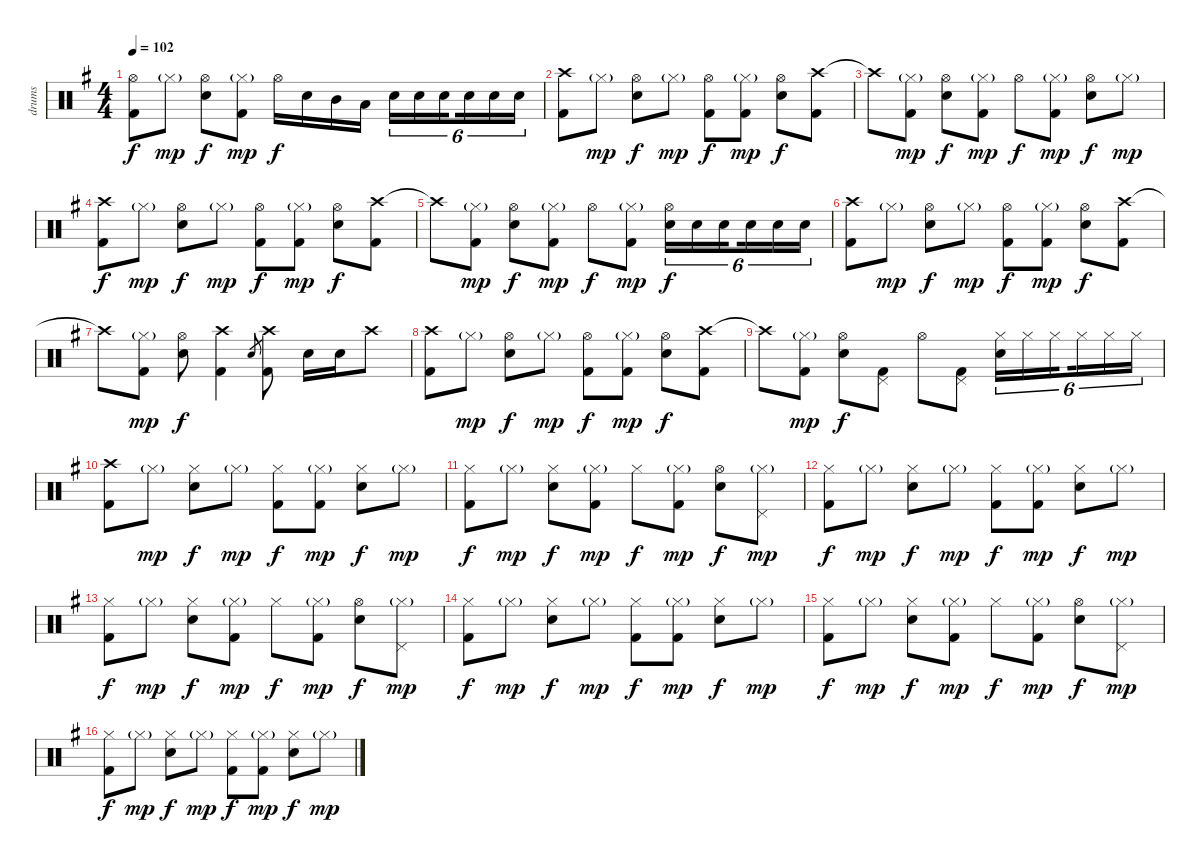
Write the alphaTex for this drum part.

\track ("drums" "drums") {instrument percussion}
\staff {score}
\articulation defaults
\ts (4 4)
\tempo 102
\clef neutral
\ks eminor
("Hi-Hat (open)" "Kick (hit) 2").8{dy f} "Hi-Hat (closed)"{g}.8{dy mp} ("Hi-Hat (open)" "Snare (hit) 2").8{dy f} ("Hi-Hat (closed)"{g} "Kick (hit) 2").8{dy mp} "Hi-Hat (open)".16{dy f} "Snare (hit) 2".16 "Mid Tom (hit)".16 "Low Tom (hit)".16 "Snare (hit) 2".16{tu (6 4)} "Snare (hit) 2".16{tu (6 4)} "Snare (hit) 2".16{tu (6 4) beam splitsecondary} "Snare (hit) 2".16{tu (6 4)} "Snare (hit) 2".16{tu (6 4)} "Snare (hit) 2".16{tu (6 4)} |
("Crash high (hit)" "Kick (hit) 2").8 "Hi-Hat (closed)"{g}.8{dy mp} ("Hi-Hat (open)" "Snare (hit) 2").8{dy f} "Hi-Hat (closed)"{g}.8{dy mp} ("Hi-Hat (open)" "Kick (hit) 2").8{dy f} ("Hi-Hat (closed)"{g} "Kick (hit) 2").8{dy mp} ("Hi-Hat (open)" "Snare (hit) 2").8{dy f} ("Crash high (hit)" "Kick (hit) 2").8 |
"Crash high (hit)"{t}.8 ("Hi-Hat (closed)"{g} "Kick (hit) 2").8{dy mp} ("Hi-Hat (open)" "Snare (hit) 2").8{dy f} ("Hi-Hat (closed)"{g} "Kick (hit) 2").8{dy mp} "Hi-Hat (open)".8{dy f} ("Hi-Hat (closed)"{g} "Kick (hit) 2").8{dy mp} ("Hi-Hat (open)" "Snare (hit) 2").8{dy f} "Hi-Hat (closed)"{g}.8{dy mp} |
("Crash high (hit)" "Kick (hit) 2").8{dy f} "Hi-Hat (closed)"{g}.8{dy mp} ("Hi-Hat (open)" "Snare (hit) 2").8{dy f} "Hi-Hat (closed)"{g}.8{dy mp} ("Hi-Hat (open)" "Kick (hit) 2").8{dy f} ("Hi-Hat (closed)"{g} "Kick (hit) 2").8{dy mp} ("Hi-Hat (open)" "Snare (hit) 2").8{dy f} ("Crash high (hit)" "Kick (hit) 2").8 |
"Crash high (hit)"{t}.8 ("Hi-Hat (closed)"{g} "Kick (hit) 2").8{dy mp} ("Hi-Hat (open)" "Snare (hit) 2").8{dy f} ("Hi-Hat (closed)"{g} "Kick (hit) 2").8{dy mp} "Hi-Hat (open)".8{dy f} ("Hi-Hat (closed)"{g} "Kick (hit) 2").8{dy mp} ("Hi-Hat (open)" "Snare (hit) 2").16{tu (6 4) dy f} "Snare (hit) 2".16{tu (6 4)} "Snare (hit) 2".16{tu (6 4) beam splitsecondary} "Snare (hit) 2".16{tu (6 4)} "Snare (hit) 2".16{tu (6 4)} "Snare (hit) 2".16{tu (6 4)} |
("Crash high (hit)" "Kick (hit) 2").8 "Hi-Hat (closed)"{g}.8{dy mp} ("Hi-Hat (open)" "Snare (hit) 2").8{dy f} "Hi-Hat (closed)"{g}.8{dy mp} ("Hi-Hat (open)" "Kick (hit) 2").8{dy f} ("Hi-Hat (closed)"{g} "Kick (hit) 2").8{dy mp} ("Hi-Hat (open)" "Snare (hit) 2").8{dy f} ("Crash high (hit)" "Kick (hit) 2").8 |
"Crash high (hit)"{t}.8 ("Hi-Hat (closed)"{g} "Kick (hit) 2").8{dy mp} ("Hi-Hat (open)" "Snare (hit) 2").8{dy f} ("Crash high (hit)" "Kick (hit) 2").4 "Snare (hit) 2".8{gr} ("Crash high (hit)" "Kick (hit) 2").8 "Snare (hit) 2".16 "Snare (hit) 2".16 "Crash high (hit)".8 |
("Crash high (hit)" "Kick (hit) 2").8 "Hi-Hat (closed)"{g}.8{dy mp} ("Hi-Hat (open)" "Snare (hit) 2").8{dy f} "Hi-Hat (closed)"{g}.8{dy mp} ("Hi-Hat (open)" "Kick (hit) 2").8{dy f} ("Hi-Hat (closed)"{g} "Kick (hit) 2").8{dy mp} ("Hi-Hat (open)" "Snare (hit) 2").8{dy f} ("Crash high (hit)" "Kick (hit) 2").8 |
"Crash high (hit)"{t}.8 ("Hi-Hat (closed)"{g} "Kick (hit) 2").8{dy mp} ("Hi-Hat (open)" "Snare (hit) 2").8{dy f} ("Pedal Hi-Hat (hit)" "Kick (hit) 2").8 "Hi-Hat (open)".8 ("Pedal Hi-Hat (hit)" "Kick (hit) 2").8 ("Hi-Hat (closed)" "Snare (hit) 2").16{tu (6 4)} "Hi-Hat (closed)".16{tu (6 4)} "Hi-Hat (closed)".16{tu (6 4) beam splitsecondary} "Hi-Hat (closed)".16{tu (6 4)} "Hi-Hat (closed)".16{tu (6 4)} "Hi-Hat (closed)".16{tu (6 4)} |
("Crash high (hit)" "Kick (hit) 2").8 "Hi-Hat (closed)"{g}.8{dy mp} ("Hi-Hat (closed)" "Snare (hit) 2").8{dy f} "Hi-Hat (closed)"{g}.8{dy mp} ("Hi-Hat (closed)" "Kick (hit) 2").8{dy f} ("Hi-Hat (closed)"{g} "Kick (hit) 2").8{dy mp} ("Hi-Hat (closed)" "Snare (hit) 2").8{dy f} "Hi-Hat (closed)"{g}.8{dy mp} |
("Hi-Hat (closed)" "Kick (hit) 2").8{dy f} "Hi-Hat (closed)"{g}.8{dy mp} ("Hi-Hat (closed)" "Snare (hit) 2").8{dy f} ("Hi-Hat (closed)"{g} "Kick (hit) 2").8{dy mp} "Hi-Hat (closed)".8{dy f} ("Hi-Hat (closed)"{g} "Kick (hit) 2").8{dy mp} ("Hi-Hat (open)" "Snare (hit) 2").8{dy f} ("Hi-Hat (closed)"{g} "Pedal Hi-Hat (hit)").8{dy mp} |
("Hi-Hat (closed)" "Kick (hit) 2").8{dy f} "Hi-Hat (closed)"{g}.8{dy mp} ("Hi-Hat (closed)" "Snare (hit) 2").8{dy f} "Hi-Hat (closed)"{g}.8{dy mp} ("Hi-Hat (closed)" "Kick (hit) 2").8{dy f} ("Hi-Hat (closed)"{g} "Kick (hit) 2").8{dy mp} ("Hi-Hat (closed)" "Snare (hit) 2").8{dy f} "Hi-Hat (closed)"{g}.8{dy mp} |
("Hi-Hat (closed)" "Kick (hit) 2").8{dy f} "Hi-Hat (closed)"{g}.8{dy mp} ("Hi-Hat (closed)" "Snare (hit) 2").8{dy f} ("Hi-Hat (closed)"{g} "Kick (hit) 2").8{dy mp} "Hi-Hat (closed)".8{dy f} ("Hi-Hat (closed)"{g} "Kick (hit) 2").8{dy mp} ("Hi-Hat (open)" "Snare (hit) 2").8{dy f} ("Hi-Hat (closed)"{g} "Pedal Hi-Hat (hit)").8{dy mp} |
("Hi-Hat (closed)" "Kick (hit) 2").8{dy f} "Hi-Hat (closed)"{g}.8{dy mp} ("Hi-Hat (closed)" "Snare (hit) 2").8{dy f} "Hi-Hat (closed)"{g}.8{dy mp} ("Hi-Hat (closed)" "Kick (hit) 2").8{dy f} ("Hi-Hat (closed)"{g} "Kick (hit) 2").8{dy mp} ("Hi-Hat (closed)" "Snare (hit) 2").8{dy f} "Hi-Hat (closed)"{g}.8{dy mp} |
("Hi-Hat (closed)" "Kick (hit) 2").8{dy f} "Hi-Hat (closed)"{g}.8{dy mp} ("Hi-Hat (closed)" "Snare (hit) 2").8{dy f} ("Hi-Hat (closed)"{g} "Kick (hit) 2").8{dy mp} "Hi-Hat (closed)".8{dy f} ("Hi-Hat (closed)"{g} "Kick (hit) 2").8{dy mp} ("Hi-Hat (open)" "Snare (hit) 2").8{dy f} ("Hi-Hat (closed)"{g} "Pedal Hi-Hat (hit)").8{dy mp} |
("Hi-Hat (closed)" "Kick (hit) 2").8{dy f} "Hi-Hat (closed)"{g}.8{dy mp} ("Hi-Hat (closed)" "Snare (hit) 2").8{dy f} "Hi-Hat (closed)"{g}.8{dy mp} ("Hi-Hat (closed)" "Kick (hit) 2").8{dy f} ("Hi-Hat (closed)"{g} "Kick (hit) 2").8{dy mp} ("Hi-Hat (closed)" "Snare (hit) 2").8{dy f} "Hi-Hat (closed)"{g}.8{dy mp}
